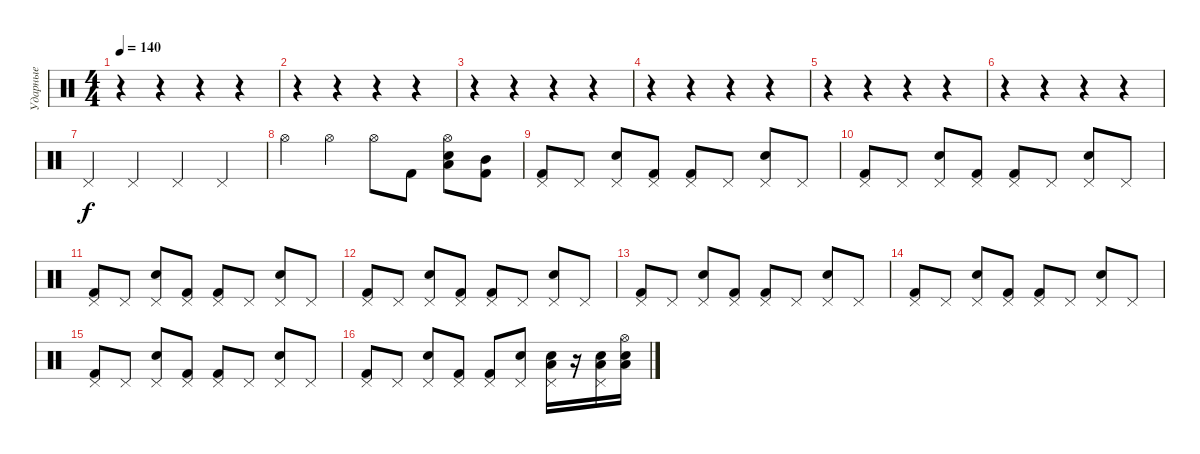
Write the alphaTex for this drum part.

\track ("Ударные" "Ударные") {instrument percussion}
\staff {score}
\articulation defaults
\ts (4 4)
\tempo 140
\clef neutral
\ks c
r.4{dy f} r.4 r.4 r.4 |
r.4 r.4 r.4 r.4 |
r.4 r.4 r.4 r.4 |
r.4 r.4 r.4 r.4 |
r.4 r.4 r.4 r.4 |
r.4 r.4 r.4 r.4 |
"Pedal Hi-Hat (hit)".4 "Pedal Hi-Hat (hit)".4 "Pedal Hi-Hat (hit)".4 "Pedal Hi-Hat (hit)".4 |
"Hi-Hat (open)".4 "Hi-Hat (open)".4 "Hi-Hat (open)".8 "Kick (hit) 2".8 ("Hi-Hat (open)" "Low Floor Tom (hit)" "Electric Snare (hit)").8 ("Kick (hit) 2" "Mid Tom (hit)").8 |
("Kick (hit) 2" "Pedal Hi-Hat (hit)").8 "Pedal Hi-Hat (hit)".8 ("Electric Snare (hit)" "Pedal Hi-Hat (hit)").8 ("Kick (hit) 2" "Pedal Hi-Hat (hit)").8 ("Kick (hit) 2" "Pedal Hi-Hat (hit)").8 "Pedal Hi-Hat (hit)".8 ("Pedal Hi-Hat (hit)" "Electric Snare (hit)").8 "Pedal Hi-Hat (hit)".8 |
("Kick (hit) 2" "Pedal Hi-Hat (hit)").8 "Pedal Hi-Hat (hit)".8 ("Electric Snare (hit)" "Pedal Hi-Hat (hit)").8 ("Kick (hit) 2" "Pedal Hi-Hat (hit)").8 ("Kick (hit) 2" "Pedal Hi-Hat (hit)").8 "Pedal Hi-Hat (hit)".8 ("Pedal Hi-Hat (hit)" "Electric Snare (hit)").8 "Pedal Hi-Hat (hit)".8 |
("Kick (hit) 2" "Pedal Hi-Hat (hit)").8 "Pedal Hi-Hat (hit)".8 ("Electric Snare (hit)" "Pedal Hi-Hat (hit)").8 ("Kick (hit) 2" "Pedal Hi-Hat (hit)").8 ("Kick (hit) 2" "Pedal Hi-Hat (hit)").8 "Pedal Hi-Hat (hit)".8 ("Pedal Hi-Hat (hit)" "Electric Snare (hit)").8 "Pedal Hi-Hat (hit)".8 |
("Kick (hit) 2" "Pedal Hi-Hat (hit)").8 "Pedal Hi-Hat (hit)".8 ("Electric Snare (hit)" "Pedal Hi-Hat (hit)").8 ("Kick (hit) 2" "Pedal Hi-Hat (hit)").8 ("Kick (hit) 2" "Pedal Hi-Hat (hit)").8 "Pedal Hi-Hat (hit)".8 ("Pedal Hi-Hat (hit)" "Electric Snare (hit)").8 "Pedal Hi-Hat (hit)".8 |
("Kick (hit) 2" "Pedal Hi-Hat (hit)").8 "Pedal Hi-Hat (hit)".8 ("Electric Snare (hit)" "Pedal Hi-Hat (hit)").8 ("Kick (hit) 2" "Pedal Hi-Hat (hit)").8 ("Kick (hit) 2" "Pedal Hi-Hat (hit)").8 "Pedal Hi-Hat (hit)".8 ("Pedal Hi-Hat (hit)" "Electric Snare (hit)").8 "Pedal Hi-Hat (hit)".8 |
("Kick (hit) 2" "Pedal Hi-Hat (hit)").8 "Pedal Hi-Hat (hit)".8 ("Electric Snare (hit)" "Pedal Hi-Hat (hit)").8 ("Kick (hit) 2" "Pedal Hi-Hat (hit)").8 ("Kick (hit) 2" "Pedal Hi-Hat (hit)").8 "Pedal Hi-Hat (hit)".8 ("Pedal Hi-Hat (hit)" "Electric Snare (hit)").8 "Pedal Hi-Hat (hit)".8 |
("Kick (hit) 2" "Pedal Hi-Hat (hit)").8 "Pedal Hi-Hat (hit)".8 ("Electric Snare (hit)" "Pedal Hi-Hat (hit)").8 ("Kick (hit) 2" "Pedal Hi-Hat (hit)").8 ("Kick (hit) 2" "Pedal Hi-Hat (hit)").8 "Pedal Hi-Hat (hit)".8 ("Pedal Hi-Hat (hit)" "Electric Snare (hit)").8 "Pedal Hi-Hat (hit)".8 |
("Kick (hit) 2" "Pedal Hi-Hat (hit)").8 "Pedal Hi-Hat (hit)".8 ("Electric Snare (hit)" "Pedal Hi-Hat (hit)").8 ("Kick (hit) 2" "Pedal Hi-Hat (hit)").8 ("Kick (hit) 2" "Pedal Hi-Hat (hit)").8 ("Electric Snare (hit)" "Pedal Hi-Hat (hit)").8 ("Electric Snare (hit)" "Pedal Hi-Hat (hit)" "Low Tom (hit)").16 r.16 ("Electric Snare (hit)" "Pedal Hi-Hat (hit)" "Low Tom (hit)").16 ("Electric Snare (hit)" "Hi-Hat (open)" "Low Tom (hit)").16
